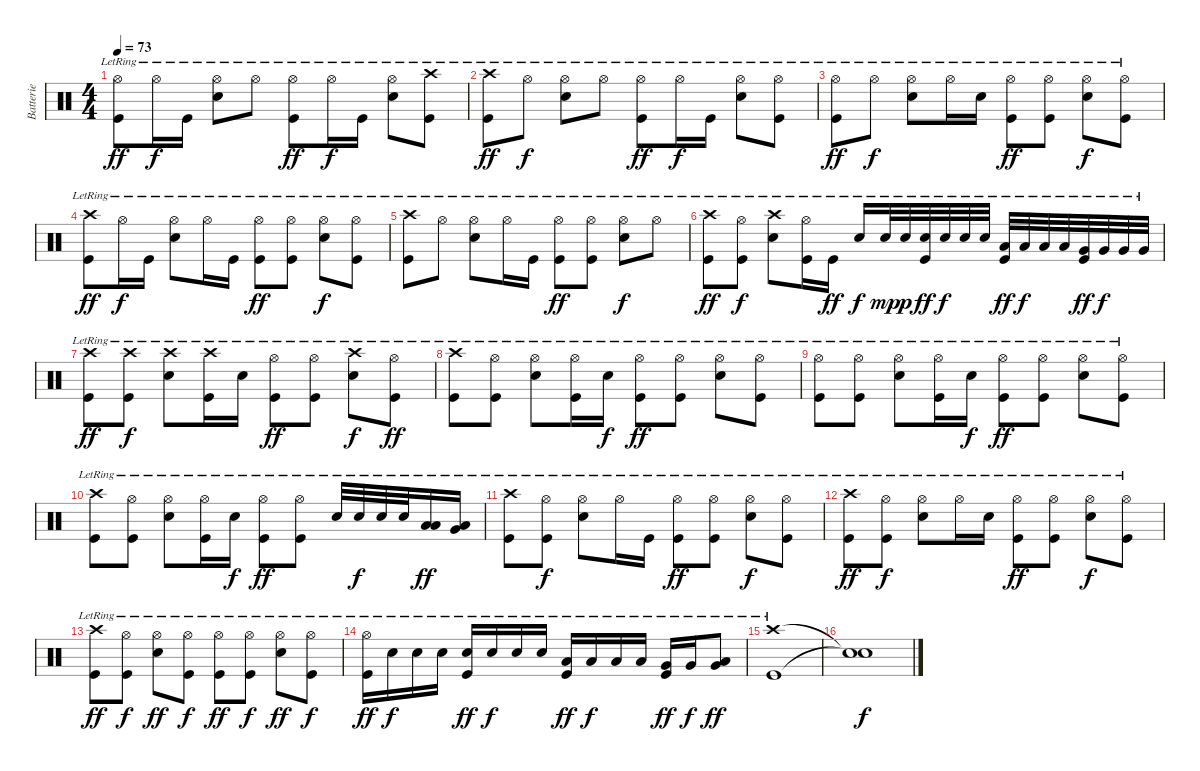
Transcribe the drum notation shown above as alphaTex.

\track ("Batterie" "Batterie") {instrument percussion}
\staff {score}
\articulation defaults
\ts (4 4)
\tempo 73
\clef neutral
\ks c
("Hi-Hat (open)"{lr} "Kick (hit)"{lr}).8{dy ff} "Hi-Hat (open)"{lr}.16{dy f} "Kick (hit)"{lr}.16 ("Hi-Hat (open)"{lr} "Snare (hit) 2"{lr}).8 "Hi-Hat (open)"{lr}.8 ("Hi-Hat (open)"{lr} "Kick (hit)"{lr}).8{dy ff} "Hi-Hat (open)"{lr}.16{dy f} "Kick (hit)"{lr}.16 ("Hi-Hat (open)"{lr} "Snare (hit) 2"{lr}).8 ("Crash high (hit)"{lr} "Kick (hit)"{lr}).8 |
("Crash high (hit)"{lr} "Kick (hit)"{lr}).8{dy ff} "Hi-Hat (open)"{lr}.8{dy f} ("Hi-Hat (open)"{lr} "Snare (hit) 2"{lr}).8 "Hi-Hat (open)"{lr}.8 ("Hi-Hat (open)"{lr} "Kick (hit)"{lr}).8{dy ff} "Hi-Hat (open)"{lr}.16{dy f} "Kick (hit)"{lr}.16 ("Hi-Hat (open)"{lr} "Snare (hit) 2"{lr}).8 ("Hi-Hat (open)"{lr} "Kick (hit)"{lr}).8 |
("Hi-Hat (open)"{lr} "Kick (hit)"{lr}).8{dy ff} "Hi-Hat (open)"{lr}.8{dy f} ("Hi-Hat (open)"{lr} "Snare (hit) 2"{lr}).8 "Hi-Hat (open)"{lr}.16 "Snare (hit) 2"{lr}.16 ("Hi-Hat (open)"{lr} "Kick (hit)"{lr}).8{dy ff} ("Hi-Hat (open)"{lr} "Kick (hit)"{lr}).8 ("Hi-Hat (open)"{lr} "Snare (hit) 2"{lr}).8{dy f} ("Hi-Hat (open)"{lr} "Kick (hit)"{lr}).8 |
("Crash high (hit)"{lr} "Kick (hit)"{lr}).8{dy ff} "Hi-Hat (open)"{lr}.16{dy f} "Kick (hit)"{lr}.16 ("Hi-Hat (open)"{lr} "Snare (hit) 2"{lr}).8 "Hi-Hat (open)"{lr}.16 "Kick (hit)"{lr}.16 ("Hi-Hat (open)"{lr} "Kick (hit)"{lr}).8{dy ff} ("Hi-Hat (open)"{lr} "Kick (hit)"{lr}).8 ("Hi-Hat (open)"{lr} "Snare (hit) 2"{lr}).8{dy f} ("Hi-Hat (open)"{lr} "Kick (hit)"{lr}).8 |
("Crash high (hit)"{lr} "Kick (hit)"{lr}).8 "Hi-Hat (open)"{lr}.8 ("Hi-Hat (open)"{lr} "Snare (hit) 2"{lr}).8 "Hi-Hat (open)"{lr}.16 "Kick (hit)"{lr}.16 ("Hi-Hat (open)"{lr} "Kick (hit)"{lr}).8{dy ff} ("Hi-Hat (open)"{lr} "Kick (hit)"{lr}).8 ("Hi-Hat (open)"{lr} "Snare (hit) 2"{lr}).8{dy f} "Hi-Hat (open)"{lr}.8 |
("Crash high (hit)"{lr} "Kick (hit)"{lr}).8{dy ff} ("Hi-Hat (open)"{lr} "Kick (hit)"{lr}).8{dy f} ("Crash high (hit)"{lr} "Snare (hit) 2"{lr}).8 ("Hi-Hat (open)"{lr} "Kick (hit)"{lr}).16 "Kick (hit)"{lr}.16{dy ff} "Snare (hit) 2"{lr}.16{dy f} "Snare (hit) 2"{lr}.32{dy mp} "Snare (hit) 2"{lr}.32{dy p} ("Snare (hit) 2"{lr} "Kick (hit)"{lr}).32{dy ff} "Snare (hit) 2"{lr}.32{dy f} "Snare (hit) 2"{lr}.32 "Snare (hit) 2"{lr}.32 ("Low Tom (hit)"{lr} "Kick (hit)"{lr}).32{dy ff} "Low Tom (hit)"{lr}.32{dy f} "Low Tom (hit)"{lr}.32 "Low Tom (hit)"{lr}.32 ("Very Low Tom (hit)"{lr} "Kick (hit)"{lr}).32{dy ff} "Very Low Tom (hit)"{lr}.32{dy f} "Very Low Tom (hit)"{lr}.32 "Very Low Tom (hit)"{lr}.32 |
("Crash high (hit)"{lr} "Kick (hit)"{lr}).8{dy ff} ("Crash high (hit)"{lr} "Kick (hit)"{lr}).8{dy f} ("Crash high (hit)"{lr} "Snare (hit) 2"{lr}).8 ("Crash high (hit)"{lr} "Kick (hit)"{lr}).16 "Snare (hit) 2"{lr}.16 ("Hi-Hat (open)"{lr} "Kick (hit)"{lr}).8{dy ff} ("Hi-Hat (open)"{lr} "Kick (hit)"{lr}).8 ("Crash high (hit)"{lr} "Snare (hit) 2"{lr}).8{dy f} ("Hi-Hat (open)"{lr} "Kick (hit)"{lr}).8{dy ff} |
("Crash high (hit)"{lr} "Kick (hit)"{lr}).8 ("Hi-Hat (open)"{lr} "Kick (hit)"{lr}).8 ("Hi-Hat (open)"{lr} "Snare (hit) 2"{lr}).8 ("Hi-Hat (open)"{lr} "Kick (hit)"{lr}).16 "Snare (hit) 2"{lr}.16{dy f} ("Hi-Hat (open)"{lr} "Kick (hit)"{lr}).8{dy ff} ("Hi-Hat (open)"{lr} "Kick (hit)"{lr}).8 ("Hi-Hat (open)"{lr} "Snare (hit) 2"{lr}).8 ("Hi-Hat (open)"{lr} "Kick (hit)"{lr}).8 |
("Hi-Hat (open)"{lr} "Kick (hit)"{lr}).8 ("Hi-Hat (open)"{lr} "Kick (hit)"{lr}).8 ("Hi-Hat (open)"{lr} "Snare (hit) 2"{lr}).8 ("Hi-Hat (open)"{lr} "Kick (hit)"{lr}).16 "Snare (hit) 2"{lr}.16{dy f} ("Hi-Hat (open)"{lr} "Kick (hit)"{lr}).8{dy ff} ("Hi-Hat (open)"{lr} "Kick (hit)"{lr}).8 ("Hi-Hat (open)"{lr} "Snare (hit) 2"{lr}).8 ("Hi-Hat (open)"{lr} "Kick (hit)"{lr}).8 |
("Crash high (hit)"{lr} "Kick (hit)"{lr}).8 ("Hi-Hat (open)"{lr} "Kick (hit)"{lr}).8 ("Hi-Hat (open)"{lr} "Snare (hit) 2"{lr}).8 ("Hi-Hat (open)"{lr} "Kick (hit)"{lr}).16 "Snare (hit) 2"{lr}.16{dy f} ("Hi-Hat (open)"{lr} "Kick (hit)"{lr}).8{dy ff} ("Hi-Hat (open)"{lr} "Kick (hit)"{lr}).8 "Snare (hit) 2"{lr}.32 "Snare (hit) 2"{lr}.32{dy f} "Snare (hit) 2"{lr}.32 "Snare (hit) 2"{lr}.32 ("Low Floor Tom (hit)"{lr} "Low Tom (hit)"{lr}).16{bu 60 dy ff} ("Low Floor Tom (hit)"{lr} "Very Low Tom (hit)"{lr}).16{bu 60} |
("Crash high (hit)"{lr} "Kick (hit)"{lr}).8 ("Hi-Hat (open)"{lr} "Kick (hit)"{lr}).8{dy f} ("Hi-Hat (open)"{lr} "Snare (hit) 2"{lr}).8 "Hi-Hat (open)"{lr}.16 "Kick (hit)"{lr}.16 ("Hi-Hat (open)"{lr} "Kick (hit)"{lr}).8{dy ff} ("Hi-Hat (open)"{lr} "Kick (hit)"{lr}).8 ("Hi-Hat (open)"{lr} "Snare (hit) 2"{lr}).8{dy f} ("Hi-Hat (open)"{lr} "Kick (hit)"{lr}).8 |
("Crash high (hit)"{lr} "Kick (hit)"{lr}).8{dy ff} ("Hi-Hat (open)"{lr} "Kick (hit)"{lr}).8{dy f} ("Hi-Hat (open)"{lr} "Snare (hit) 2"{lr}).8 "Hi-Hat (open)"{lr}.16 "Snare (hit) 2"{lr}.16 ("Hi-Hat (open)"{lr} "Kick (hit)"{lr}).8{dy ff} ("Hi-Hat (open)"{lr} "Kick (hit)"{lr}).8 ("Hi-Hat (open)"{lr} "Snare (hit) 2"{lr}).8{dy f} ("Hi-Hat (open)"{lr} "Kick (hit)"{lr}).8 |
("Crash high (hit)"{lr} "Kick (hit)"{lr}).8{dy ff} ("Hi-Hat (open)"{lr} "Kick (hit)"{lr}).8{dy f} ("Hi-Hat (open)"{lr} "Snare (hit) 2"{lr}).8{dy ff} ("Hi-Hat (open)"{lr} "Kick (hit)"{lr}).8{dy f} ("Hi-Hat (open)"{lr} "Kick (hit)"{lr}).8{dy ff} ("Hi-Hat (open)"{lr} "Kick (hit)"{lr}).8{dy f} ("Hi-Hat (open)"{lr} "Snare (hit) 2"{lr}).8{dy ff} ("Hi-Hat (open)"{lr} "Kick (hit)"{lr}).8{dy f} |
("Hi-Hat (open)"{lr} "Kick (hit)"{lr}).16{dy ff} "Snare (hit) 2"{lr}.16{dy f} "Snare (hit) 2"{lr}.16 "Snare (hit) 2"{lr}.16 ("Snare (hit) 2"{lr} "Kick (hit)"{lr}).16{dy ff} "Snare (hit) 2"{lr}.16{dy f} "Snare (hit) 2"{lr}.16 "Snare (hit) 2"{lr}.16 ("Low Tom (hit)"{lr} "Kick (hit)"{lr}).16{dy ff} "Low Tom (hit)"{lr}.16{dy f} "Low Tom (hit)"{lr}.16 "Low Tom (hit)"{lr}.16 ("Very Low Tom (hit)"{lr} "Kick (hit)"{lr}).16{dy ff} "Very Low Tom (hit)"{lr}.16{dy f} ("Low Floor Tom (hit)"{lr} "Very Low Tom (hit)"{lr}).8{bu 60 dy ff} |
("Crash high (hit)"{lr} "Kick (hit)"{lr}).1 |
("Snare (hit)"{t} "Snare (hit)"{t}).1{dy f}
